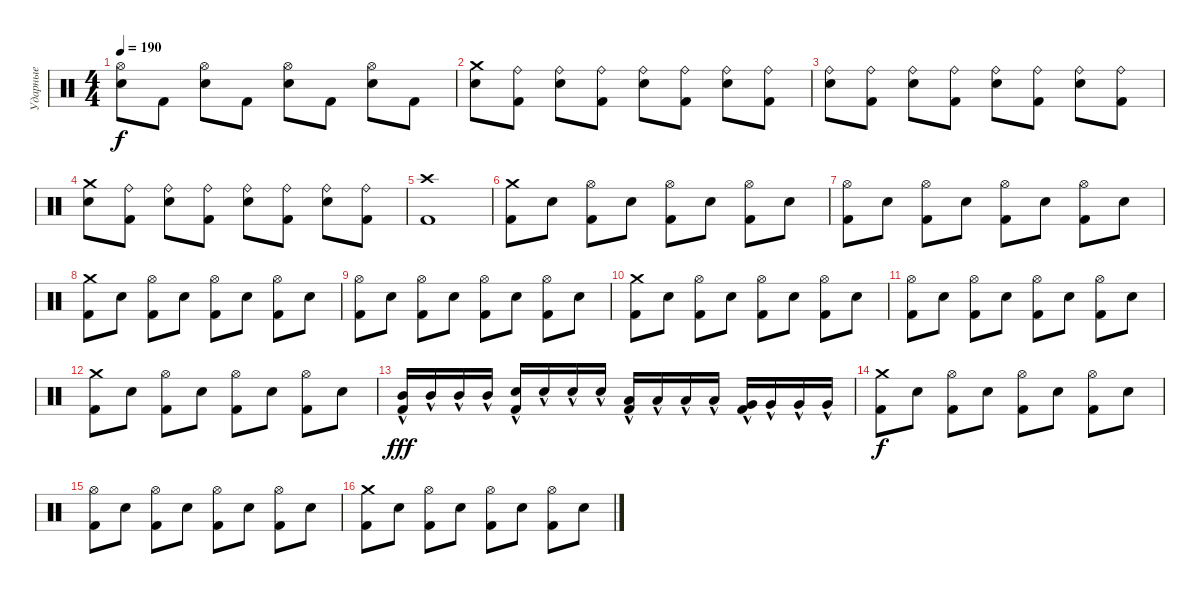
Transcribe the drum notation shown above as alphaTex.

\track ("Ударные" "Ударные") {instrument percussion}
\staff {score}
\articulation defaults
\ts (4 4)
\tempo 190
\clef neutral
\ks c
("Hi-Hat (open)" "Electric Snare (hit)").8{dy f} "Kick (hit) 2".8 ("Hi-Hat (open)" "Electric Snare (hit)").8 "Kick (hit) 2".8 ("Hi-Hat (open)" "Electric Snare (hit)").8 "Kick (hit) 2".8 ("Hi-Hat (open)" "Electric Snare (hit)").8 "Kick (hit) 2".8 |
("Crash medium (hit)" "Electric Snare (hit)").8 ("Ride (bell)" "Kick (hit) 2").8 ("Ride (bell)" "Electric Snare (hit)").8 ("Ride (bell)" "Kick (hit) 2").8 ("Ride (bell)" "Electric Snare (hit)").8 ("Ride (bell)" "Kick (hit) 2").8 ("Ride (bell)" "Electric Snare (hit)").8 ("Ride (bell)" "Kick (hit) 2").8 |
("Ride (bell)" "Electric Snare (hit)").8 ("Ride (bell)" "Kick (hit) 2").8 ("Ride (bell)" "Electric Snare (hit)").8 ("Ride (bell)" "Kick (hit) 2").8 ("Ride (bell)" "Electric Snare (hit)").8 ("Ride (bell)" "Kick (hit) 2").8 ("Ride (bell)" "Electric Snare (hit)").8 ("Ride (bell)" "Kick (hit) 2").8 |
("Crash medium (hit)" "Electric Snare (hit)").8 ("Ride (bell)" "Kick (hit) 2").8 ("Ride (bell)" "Electric Snare (hit)").8 ("Ride (bell)" "Kick (hit) 2").8 ("Ride (bell)" "Electric Snare (hit)").8 ("Ride (bell)" "Kick (hit) 2").8 ("Ride (bell)" "Electric Snare (hit)").8 ("Ride (bell)" "Kick (hit) 2").8 |
("Crash high (hit)" "Kick (hit) 2").1 |
("Crash medium (hit)" "Kick (hit) 2").8 "Electric Snare (hit)".8 ("Hi-Hat (open)" "Kick (hit) 2").8 "Electric Snare (hit)".8 ("Hi-Hat (open)" "Kick (hit) 2").8 "Electric Snare (hit)".8 ("Hi-Hat (open)" "Kick (hit) 2").8 "Electric Snare (hit)".8 |
("Hi-Hat (open)" "Kick (hit) 2").8 "Electric Snare (hit)".8 ("Hi-Hat (open)" "Kick (hit) 2").8 "Electric Snare (hit)".8 ("Hi-Hat (open)" "Kick (hit) 2").8 "Electric Snare (hit)".8 ("Hi-Hat (open)" "Kick (hit) 2").8 "Electric Snare (hit)".8 |
("Crash medium (hit)" "Kick (hit) 2").8 "Electric Snare (hit)".8 ("Hi-Hat (open)" "Kick (hit) 2").8 "Electric Snare (hit)".8 ("Hi-Hat (open)" "Kick (hit) 2").8 "Electric Snare (hit)".8 ("Hi-Hat (open)" "Kick (hit) 2").8 "Electric Snare (hit)".8 |
("Hi-Hat (open)" "Kick (hit) 2").8 "Electric Snare (hit)".8 ("Hi-Hat (open)" "Kick (hit) 2").8 "Electric Snare (hit)".8 ("Hi-Hat (open)" "Kick (hit) 2").8 "Electric Snare (hit)".8 ("Hi-Hat (open)" "Kick (hit) 2").8 "Electric Snare (hit)".8 |
("Crash medium (hit)" "Kick (hit) 2").8 "Electric Snare (hit)".8 ("Hi-Hat (open)" "Kick (hit) 2").8 "Electric Snare (hit)".8 ("Hi-Hat (open)" "Kick (hit) 2").8 "Electric Snare (hit)".8 ("Hi-Hat (open)" "Kick (hit) 2").8 "Electric Snare (hit)".8 |
("Hi-Hat (open)" "Kick (hit) 2").8 "Electric Snare (hit)".8 ("Hi-Hat (open)" "Kick (hit) 2").8 "Electric Snare (hit)".8 ("Hi-Hat (open)" "Kick (hit) 2").8 "Electric Snare (hit)".8 ("Hi-Hat (open)" "Kick (hit) 2").8 "Electric Snare (hit)".8 |
("Crash medium (hit)" "Kick (hit) 2").8 "Electric Snare (hit)".8 ("Hi-Hat (open)" "Kick (hit) 2").8 "Electric Snare (hit)".8 ("Hi-Hat (open)" "Kick (hit) 2").8 "Electric Snare (hit)".8 ("Hi-Hat (open)" "Kick (hit) 2").8 "Electric Snare (hit)".8 |
("Mid Tom (hit)"{hac} "Kick (hit) 2"{hac}).16{dy fff} "Mid Tom (hit)"{hac}.16 "Mid Tom (hit)"{hac}.16 "Mid Tom (hit)"{hac}.16 ("Electric Snare (hit)"{hac} "Kick (hit) 2"{hac}).16 "Electric Snare (hit)"{hac}.16 "Electric Snare (hit)"{hac}.16 "Electric Snare (hit)"{hac}.16 ("Low Tom (hit)"{hac} "Kick (hit) 2"{hac}).16 "Low Tom (hit)"{hac}.16 "Low Tom (hit)"{hac}.16 "Low Tom (hit)"{hac}.16 ("Very Low Tom (hit)"{hac} "Kick (hit) 2"{hac}).16 "Very Low Tom (hit)"{hac}.16 "Very Low Tom (hit)"{hac}.16 "Very Low Tom (hit)"{hac}.16 |
("Crash medium (hit)" "Kick (hit) 2").8{dy f} "Electric Snare (hit)".8 ("Hi-Hat (open)" "Kick (hit) 2").8 "Electric Snare (hit)".8 ("Hi-Hat (open)" "Kick (hit) 2").8 "Electric Snare (hit)".8 ("Hi-Hat (open)" "Kick (hit) 2").8 "Electric Snare (hit)".8 |
("Hi-Hat (open)" "Kick (hit) 2").8 "Electric Snare (hit)".8 ("Hi-Hat (open)" "Kick (hit) 2").8 "Electric Snare (hit)".8 ("Hi-Hat (open)" "Kick (hit) 2").8 "Electric Snare (hit)".8 ("Hi-Hat (open)" "Kick (hit) 2").8 "Electric Snare (hit)".8 |
("Crash medium (hit)" "Kick (hit) 2").8 "Electric Snare (hit)".8 ("Hi-Hat (open)" "Kick (hit) 2").8 "Electric Snare (hit)".8 ("Hi-Hat (open)" "Kick (hit) 2").8 "Electric Snare (hit)".8 ("Hi-Hat (open)" "Kick (hit) 2").8 "Electric Snare (hit)".8
